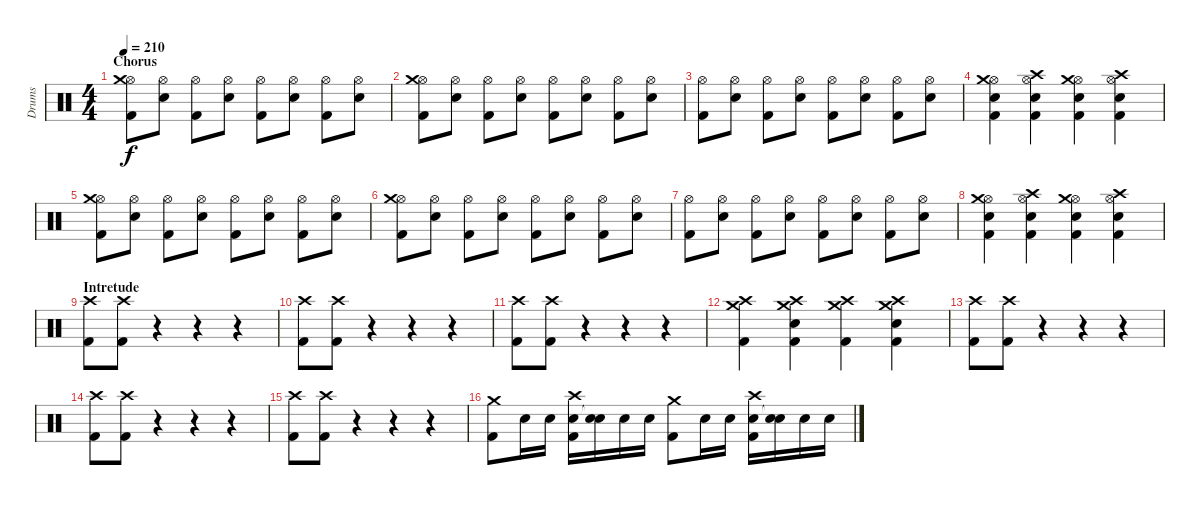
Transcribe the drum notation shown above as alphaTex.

\track ("Drums" "Drums") {instrument percussion}
\staff {score}
\articulation defaults
\ts (4 4)
\section ("" "Chorus")
\tempo 210
\clef neutral
\ks c
("Hi-Hat (open)" "Crash medium (hit)" "Kick (hit) 2").8{dy f} ("Hi-Hat (open)" "Electric Snare (hit)").8 ("Hi-Hat (open)" "Kick (hit) 2").8 ("Hi-Hat (open)" "Electric Snare (hit)").8 ("Hi-Hat (open)" "Kick (hit) 2").8 ("Hi-Hat (open)" "Electric Snare (hit)").8 ("Hi-Hat (open)" "Kick (hit) 2").8 ("Hi-Hat (open)" "Electric Snare (hit)").8 |
("Hi-Hat (open)" "Crash medium (hit)" "Kick (hit) 2").8 ("Hi-Hat (open)" "Electric Snare (hit)").8 ("Hi-Hat (open)" "Kick (hit) 2").8 ("Hi-Hat (open)" "Electric Snare (hit)").8 ("Hi-Hat (open)" "Kick (hit) 2").8 ("Hi-Hat (open)" "Electric Snare (hit)").8 ("Hi-Hat (open)" "Kick (hit) 2").8 ("Hi-Hat (open)" "Electric Snare (hit)").8 |
("Hi-Hat (open)" "Kick (hit) 2").8 ("Hi-Hat (open)" "Electric Snare (hit)").8 ("Hi-Hat (open)" "Kick (hit) 2").8 ("Hi-Hat (open)" "Electric Snare (hit)").8 ("Hi-Hat (open)" "Kick (hit) 2").8 ("Hi-Hat (open)" "Electric Snare (hit)").8 ("Hi-Hat (open)" "Kick (hit) 2").8 ("Hi-Hat (open)" "Electric Snare (hit)").8 |
("Hi-Hat (open)" "Crash medium (hit)" "Electric Snare (hit)" "Kick (hit) 2").4 ("Hi-Hat (open)" "Crash high (hit)" "Electric Snare (hit)" "Kick (hit) 2").4 ("Hi-Hat (open)" "Crash medium (hit)" "Electric Snare (hit)" "Kick (hit) 2").4 ("Hi-Hat (open)" "Crash high (hit)" "Electric Snare (hit)" "Kick (hit) 2").4 |
("Hi-Hat (open)" "Crash medium (hit)" "Kick (hit) 2").8 ("Hi-Hat (open)" "Electric Snare (hit)").8 ("Hi-Hat (open)" "Kick (hit) 2").8 ("Hi-Hat (open)" "Electric Snare (hit)").8 ("Hi-Hat (open)" "Kick (hit) 2").8 ("Hi-Hat (open)" "Electric Snare (hit)").8 ("Hi-Hat (open)" "Kick (hit) 2").8 ("Hi-Hat (open)" "Electric Snare (hit)").8 |
("Hi-Hat (open)" "Crash medium (hit)" "Kick (hit) 2").8 ("Hi-Hat (open)" "Electric Snare (hit)").8 ("Hi-Hat (open)" "Kick (hit) 2").8 ("Hi-Hat (open)" "Electric Snare (hit)").8 ("Hi-Hat (open)" "Kick (hit) 2").8 ("Hi-Hat (open)" "Electric Snare (hit)").8 ("Hi-Hat (open)" "Kick (hit) 2").8 ("Hi-Hat (open)" "Electric Snare (hit)").8 |
("Hi-Hat (open)" "Kick (hit) 2").8 ("Hi-Hat (open)" "Electric Snare (hit)").8 ("Hi-Hat (open)" "Kick (hit) 2").8 ("Hi-Hat (open)" "Electric Snare (hit)").8 ("Hi-Hat (open)" "Kick (hit) 2").8 ("Hi-Hat (open)" "Electric Snare (hit)").8 ("Hi-Hat (open)" "Kick (hit) 2").8 ("Hi-Hat (open)" "Electric Snare (hit)").8 |
("Hi-Hat (open)" "Crash medium (hit)" "Electric Snare (hit)" "Kick (hit) 2").4 ("Hi-Hat (open)" "Crash high (hit)" "Electric Snare (hit)" "Kick (hit) 2").4 ("Hi-Hat (open)" "Crash medium (hit)" "Electric Snare (hit)" "Kick (hit) 2").4 ("Hi-Hat (open)" "Crash high (hit)" "Electric Snare (hit)" "Kick (hit) 2").4 |
\section ("" "Intretude")
("Crash high (hit)" "Kick (hit) 2").8 ("Crash high (hit)" "Kick (hit) 2").8 r.4 r.4 r.4 |
("Crash high (hit)" "Kick (hit) 2").8 ("Crash high (hit)" "Kick (hit) 2").8 r.4 r.4 r.4 |
("Crash high (hit)" "Kick (hit) 2").8 ("Crash high (hit)" "Kick (hit) 2").8 r.4 r.4 r.4 |
("Crash high (hit)" "Crash medium (hit)" "Kick (hit) 2").4 ("Crash medium (hit)" "Crash high (hit)" "Electric Snare (hit)" "Kick (hit) 2").4 ("Crash high (hit)" "Crash medium (hit)" "Kick (hit) 2").4 ("Crash medium (hit)" "Crash high (hit)" "Electric Snare (hit)" "Kick (hit) 2").4 |
("Crash high (hit)" "Kick (hit) 2").8 ("Crash high (hit)" "Kick (hit) 2").8 r.4 r.4 r.4 |
("Crash high (hit)" "Kick (hit) 2").8 ("Crash high (hit)" "Kick (hit) 2").8 r.4 r.4 r.4 |
("Crash high (hit)" "Kick (hit) 2").8 ("Crash high (hit)" "Kick (hit) 2").8 r.4 r.4 r.4 |
("Crash medium (hit)" "Kick (hit) 2").8 "Electric Snare (hit)".16 "Electric Snare (hit)".16 ("Crash high (hit)" "Electric Snare (hit)" "Kick (hit) 2").16 ("Electric Snare (hit)" "Snare (hit)"{t}).16 "Electric Snare (hit)".16 "Electric Snare (hit)".16 ("Crash medium (hit)" "Kick (hit) 2").8 "Electric Snare (hit)".16 "Electric Snare (hit)".16 ("Crash high (hit)" "Electric Snare (hit)" "Kick (hit) 2").16 ("Electric Snare (hit)" "Snare (hit)"{t}).16 "Electric Snare (hit)".16 "Electric Snare (hit)".16
